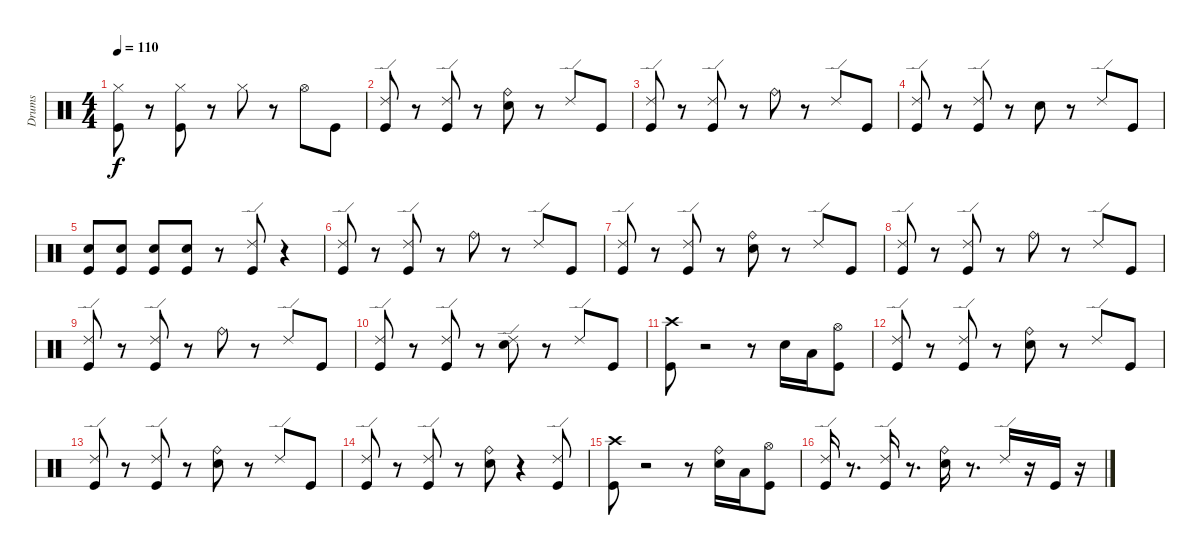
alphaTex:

\track ("Drums" "Drums") {instrument percussion}
\staff {score}
\articulation defaults
\ts (4 4)
\tempo 110
\clef neutral
\ks c
("Hi-Hat (closed)" "Kick (hit)").8{dy f} r.8 ("Hi-Hat (closed)" "Kick (hit)").8 r.8 "Hi-Hat (closed)".8 r.8 "Hi-Hat (open)".8 "Kick (hit)".8 |
("Kick (hit)" "Ride (edge) 2").8 r.8 ("Ride (edge) 2" "Kick (hit)").8 r.8 ("Ride (bell)" "Snare (hit) 2").8 r.8 "Ride (edge) 2".8 "Kick (hit)".8 |
("Ride (edge) 2" "Kick (hit)").8 r.8 ("Ride (edge) 2" "Kick (hit)").8 r.8 "Ride (bell)".8 r.8 "Ride (edge) 2".8 "Kick (hit)".8 |
("Ride (edge) 2" "Kick (hit)").8 r.8 ("Ride (edge) 2" "Kick (hit)").8 r.8 "Snare (hit) 2".8 r.8 "Ride (edge) 2".8 "Kick (hit)".8 |
("Electric Snare (hit)" "Kick (hit)").8 ("Electric Snare (hit)" "Kick (hit)").8 ("Snare (hit) 2" "Kick (hit)").8 ("Electric Snare (hit)" "Kick (hit)").8 r.8 ("Ride (edge) 2" "Kick (hit)").8 r.4 |
("Ride (edge) 2" "Kick (hit)").8 r.8 ("Ride (edge) 2" "Kick (hit)").8 r.8 "Ride (bell)".8 r.8 "Ride (edge) 2".8 "Kick (hit)".8 |
("Ride (edge) 2" "Kick (hit)").8 r.8 ("Ride (edge) 2" "Kick (hit)").8 r.8 ("Ride (bell)" "Electric Snare (hit)").8 r.8 "Ride (edge) 2".8 "Kick (hit)".8 |
("Ride (edge) 2" "Kick (hit)").8 r.8 ("Ride (edge) 2" "Kick (hit)").8 r.8 "Ride (bell)".8 r.8 "Ride (edge) 2".8 "Kick (hit)".8 |
("Ride (edge) 2" "Kick (hit)").8 r.8 ("Ride (edge) 2" "Kick (hit)").8 r.8 "Ride (bell)".8 r.8 "Ride (edge) 2".8 "Kick (hit)".8 |
("Kick (hit)" "Ride (edge) 2").8 r.8 ("Kick (hit)" "Ride (edge) 2").8 r.8 ("Electric Snare (hit)" "Ride (edge) 2").8 r.8 "Ride (edge) 2".8 "Kick (hit)".8 |
("Crash high (hit)" "Kick (hit)").8 r.2 r.8 "Electric Snare (hit)".16 "Low Tom (hit)".16 ("Hi-Hat (open)" "Kick (hit)").8 |
("Ride (edge) 2" "Kick (hit)").8 r.8 ("Ride (edge) 2" "Kick (hit)").8 r.8 ("Ride (bell)" "Snare (hit) 2").8 r.8 "Ride (edge) 2".8 "Kick (hit)".8 |
("Ride (edge) 2" "Kick (hit)").8 r.8 ("Ride (edge) 2" "Kick (hit)").8 r.8 ("Ride (bell)" "Electric Snare (hit)").8 r.8 "Ride (edge) 2".8 "Kick (hit)".8 |
("Ride (edge) 2" "Kick (hit)").8 r.8 ("Ride (edge) 2" "Kick (hit)").8 r.8 ("Electric Snare (hit)" "Ride (bell)").8 r.4 ("Ride (edge) 2" "Kick (hit)").8 |
("Crash high (hit)" "Kick (hit)").8 r.2 r.8 ("Ride (bell)" "Snare (hit) 2").16 "Low Tom (hit)".16 ("Hi-Hat (open)" "Kick (hit)").8 |
("Ride (edge) 2" "Kick (hit)").16 r.8{d} ("Ride (edge) 2" "Kick (hit)").16 r.8{d} ("Ride (bell)" "Electric Snare (hit)").16 r.8{d} "Ride (edge) 2".16 r.16 "Kick (hit)".16 r.16
